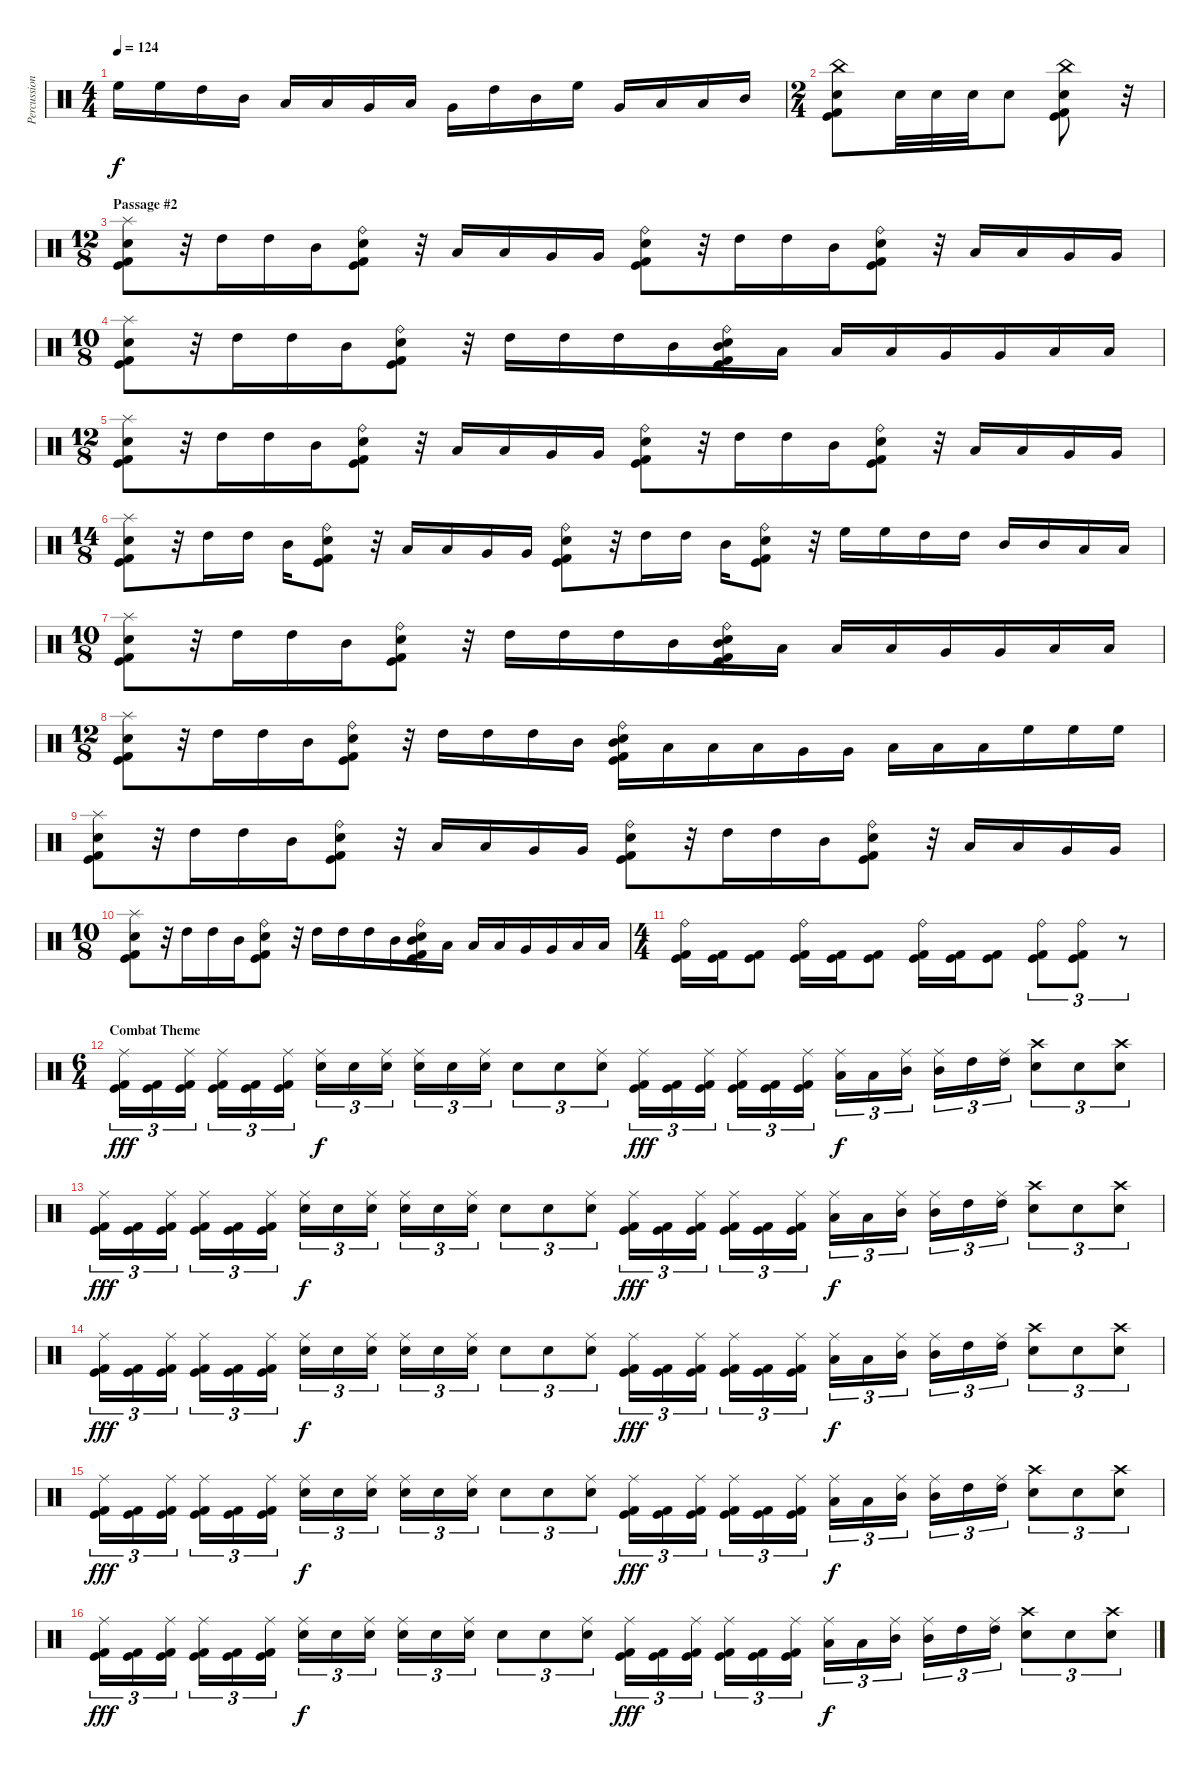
\track ("Percussion" "Percussion") {instrument percussion}
\staff {score}
\articulation defaults
\ts (4 4)
\tempo 124
\clef neutral
\ks c "High Floor Tom (hit)".16{dy f} "High Floor Tom (hit)".16 "High Tom (hit)".16 "Mid Tom (hit)".16 "Low Tom (hit)".16 "Low Tom (hit)".16 "Very Low Tom (hit)".16 "Low Floor Tom (hit)".16 "Very Low Tom (hit)".16 "High Tom (hit)".16 "Mid Tom (hit)".16 "High Floor Tom (hit)".16 "Very Low Tom (hit)".16 "Low Floor Tom (hit)".16 "Low Tom (hit)".16 "Mid Tom (hit)".16
|
\ts (2 4)
("China (hit)" "Snare (hit) 2" "Kick (hit) 2" "Kick (hit)").8 "Snare (hit) 2".32 "Snare (hit) 2".32 "Snare (hit) 2".32 "Snare (hit) 2".8 ("China (hit)" "Snare (hit) 2" "Kick (hit) 2" "Kick (hit)").8 r.32 |
\ts (12 8)
\section ("" "Passage #2")
("Splash (hit)" "Snare (hit) 2" "Kick (hit) 2" "Kick (hit)").8 r.32 "High Tom (hit)".16 "High Tom (hit)".16 "Mid Tom (hit)".16 ("Ride (bell)" "Snare (hit) 2" "Kick (hit) 2" "Kick (hit)").8 r.32 "Low Tom (hit)".16 "Low Tom (hit)".16 "Very Low Tom (hit)".16 "Very Low Tom (hit)".16 ("Ride (bell)" "Snare (hit) 2" "Kick (hit) 2" "Kick (hit)").8 r.32 "High Tom (hit)".16 "High Tom (hit)".16 "Mid Tom (hit)".16 ("Ride (bell)" "Snare (hit) 2" "Kick (hit) 2" "Kick (hit)").8 r.32 "Low Tom (hit)".16 "Low Tom (hit)".16 "Very Low Tom (hit)".16 "Very Low Tom (hit)".16 |
\ts (10 8)
("Splash (hit)" "Snare (hit) 2" "Kick (hit) 2" "Kick (hit)").8 r.32 "High Tom (hit)".16 "High Tom (hit)".16 "Mid Tom (hit)".16 ("Ride (bell)" "Snare (hit) 2" "Kick (hit) 2" "Kick (hit)").8 r.32 "High Tom (hit)".16 "High Tom (hit)".16 "High Tom (hit)".16 "Mid Tom (hit)".16 ("Ride (bell)" "Snare (hit) 2" "Mid Tom (hit)" "Kick (hit) 2" "Kick (hit)").16 "Low Tom (hit)".16 "Low Tom (hit)".16 "Low Tom (hit)".16 "Very Low Tom (hit)".16 "Very Low Tom (hit)".16 "Low Floor Tom (hit)".16 "Low Floor Tom (hit)".16 |
\ts (12 8)
("Splash (hit)" "Snare (hit) 2" "Kick (hit) 2" "Kick (hit)").8 r.32 "High Tom (hit)".16 "High Tom (hit)".16 "Mid Tom (hit)".16 ("Ride (bell)" "Snare (hit) 2" "Kick (hit) 2" "Kick (hit)").8 r.32 "Low Tom (hit)".16 "Low Tom (hit)".16 "Very Low Tom (hit)".16 "Very Low Tom (hit)".16 ("Ride (bell)" "Snare (hit) 2" "Kick (hit) 2" "Kick (hit)").8 r.32 "High Tom (hit)".16 "High Tom (hit)".16 "Mid Tom (hit)".16 ("Ride (bell)" "Snare (hit) 2" "Kick (hit) 2" "Kick (hit)").8 r.32 "Low Tom (hit)".16 "Low Tom (hit)".16 "Very Low Tom (hit)".16 "Very Low Tom (hit)".16 |
\ts (14 8)
("Splash (hit)" "Snare (hit) 2" "Kick (hit) 2" "Kick (hit)").8 r.32 "High Tom (hit)".16 "High Tom (hit)".16 "Mid Tom (hit)".16 ("Ride (bell)" "Snare (hit) 2" "Kick (hit) 2" "Kick (hit)").8 r.32 "Low Tom (hit)".16 "Low Tom (hit)".16 "Very Low Tom (hit)".16 "Very Low Tom (hit)".16 ("Ride (bell)" "Snare (hit) 2" "Kick (hit) 2" "Kick (hit)").8 r.32 "High Tom (hit)".16 "High Tom (hit)".16 "Mid Tom (hit)".16 ("Ride (bell)" "Snare (hit) 2" "Kick (hit) 2" "Kick (hit)").8 r.32 "High Floor Tom (hit)".16 "High Floor Tom (hit)".16 "High Tom (hit)".16 "High Tom (hit)".16 "Mid Tom (hit)".16 "Mid Tom (hit)".16 "Low Tom (hit)".16 "Low Tom (hit)".16 |
\ts (10 8)
("Splash (hit)" "Snare (hit) 2" "Kick (hit) 2" "Kick (hit)").8 r.32 "High Tom (hit)".16 "High Tom (hit)".16 "Mid Tom (hit)".16 ("Ride (bell)" "Snare (hit) 2" "Kick (hit) 2" "Kick (hit)").8 r.32 "High Tom (hit)".16 "High Tom (hit)".16 "High Tom (hit)".16 "Mid Tom (hit)".16 ("Ride (bell)" "Snare (hit) 2" "Mid Tom (hit)" "Kick (hit) 2" "Kick (hit)").16 "Low Tom (hit)".16 "Low Tom (hit)".16 "Low Tom (hit)".16 "Very Low Tom (hit)".16 "Very Low Tom (hit)".16 "Low Floor Tom (hit)".16 "Low Floor Tom (hit)".16 |
\ts (12 8)
("Splash (hit)" "Snare (hit) 2" "Kick (hit) 2" "Kick (hit)").8 r.32 "High Tom (hit)".16 "High Tom (hit)".16 "Mid Tom (hit)".16 ("Ride (bell)" "Snare (hit) 2" "Kick (hit) 2" "Kick (hit)").8 r.32 "High Tom (hit)".16 "High Tom (hit)".16 "High Tom (hit)".16 "Mid Tom (hit)".16 ("Ride (bell)" "Snare (hit) 2" "Mid Tom (hit)" "Kick (hit) 2" "Kick (hit)").16 "Low Tom (hit)".16 "Low Tom (hit)".16 "Low Tom (hit)".16 "Very Low Tom (hit)".16 "Very Low Tom (hit)".16 "Low Floor Tom (hit)".16 "Low Floor Tom (hit)".16 "Low Floor Tom (hit)".16 "High Floor Tom (hit)".16 "High Floor Tom (hit)".16 "High Floor Tom (hit)".16 |
("Splash (hit)" "Snare (hit) 2" "Kick (hit) 2" "Kick (hit)").8 r.32 "High Tom (hit)".16 "High Tom (hit)".16 "Mid Tom (hit)".16 ("Ride (bell)" "Snare (hit) 2" "Kick (hit) 2" "Kick (hit)").8 r.32 "Low Tom (hit)".16 "Low Tom (hit)".16 "Very Low Tom (hit)".16 "Very Low Tom (hit)".16 ("Ride (bell)" "Snare (hit) 2" "Kick (hit) 2" "Kick (hit)").8 r.32 "High Tom (hit)".16 "High Tom (hit)".16 "Mid Tom (hit)".16 ("Ride (bell)" "Snare (hit) 2" "Kick (hit) 2" "Kick (hit)").8 r.32 "Low Tom (hit)".16 "Low Tom (hit)".16 "Very Low Tom (hit)".16 "Very Low Tom (hit)".16 |
\ts (10 8)
("Splash (hit)" "Snare (hit) 2" "Kick (hit) 2" "Kick (hit)").8 r.32 "High Tom (hit)".16 "High Tom (hit)".16 "Mid Tom (hit)".16 ("Ride (bell)" "Snare (hit) 2" "Kick (hit) 2" "Kick (hit)").8 r.32 "High Tom (hit)".16 "High Tom (hit)".16 "High Tom (hit)".16 "Mid Tom (hit)".16 ("Ride (bell)" "Snare (hit) 2" "Mid Tom (hit)" "Kick (hit) 2" "Kick (hit)").16 "Low Tom (hit)".16 "Low Tom (hit)".16 "Low Tom (hit)".16 "Very Low Tom (hit)".16 "Very Low Tom (hit)".16 "Low Floor Tom (hit)".16 "Low Floor Tom (hit)".16 |
\ts (4 4)
("Ride (bell)" "Kick (hit) 2" "Kick (hit)").16 ("Kick (hit) 2" "Kick (hit)").16 ("Kick (hit) 2" "Kick (hit)").8 ("Ride (bell)" "Kick (hit) 2" "Kick (hit)").16 ("Kick (hit) 2" "Kick (hit)").16 ("Kick (hit) 2" "Kick (hit)").8 ("Ride (bell)" "Kick (hit) 2" "Kick (hit)").16 ("Kick (hit) 2" "Kick (hit)").16 ("Kick (hit) 2" "Kick (hit)").8 ("Ride (bell)" "Kick (hit) 2" "Kick (hit)").8{tu (3 2)} ("Ride (bell)" "Kick (hit) 2" "Kick (hit)").8{tu (3 2)} r.8{tu (3 2)} |
\ts (6 4)
\section ("" "Combat Theme")
("Ride (middle)" "Kick (hit) 2" "Kick (hit)").16{tu (3 2) dy fff} ("Kick (hit) 2" "Kick (hit)").16{tu (3 2)} ("Ride (middle)" "Kick (hit) 2" "Kick (hit)").16{tu (3 2)} ("Ride (middle)" "Kick (hit) 2" "Kick (hit)").16{tu (3 2)} ("Kick (hit) 2" "Kick (hit)").16{tu (3 2)} ("Ride (middle)" "Kick (hit) 2" "Kick (hit)").16{tu (3 2)} ("Ride (middle)" "Snare (hit) 2").16{tu (3 2) dy f} "Snare (hit) 2".16{tu (3 2)} ("Ride (middle)" "Snare (hit) 2").16{tu (3 2)} ("Ride (middle)" "Snare (hit) 2").16{tu (3 2)} "Snare (hit) 2".16{tu (3 2)} ("Ride (middle)" "Snare (hit) 2").16{tu (3 2)} "Snare (hit) 2".8{tu (3 2)} "Snare (hit) 2".8{tu (3 2)} ("Ride (middle)" "Snare (hit) 2").8{tu (3 2)} ("Ride (middle)" "Kick (hit) 2" "Kick (hit)").16{tu (3 2) dy fff} ("Kick (hit) 2" "Kick (hit)").16{tu (3 2)} ("Ride (middle)" "Kick (hit) 2" "Kick (hit)").16{tu (3 2)} ("Ride (middle)" "Kick (hit) 2" "Kick (hit)").16{tu (3 2)} ("Kick (hit) 2" "Kick (hit)").16{tu (3 2)} ("Ride (middle)" "Kick (hit) 2" "Kick (hit)").16{tu (3 2)} ("Ride (middle)" "Low Tom (hit)").16{tu (3 2) dy f} "Low Tom (hit)".16{tu (3 2)} ("Ride (middle)" "Mid Tom (hit)").16{tu (3 2)} ("Ride (middle)" "Mid Tom (hit)").16{tu (3 2)} "High Tom (hit)".16{tu (3 2)} ("Ride (middle)" "High Tom (hit)").16{tu (3 2)} ("Crash high (hit)" "Snare (hit) 2").8{tu (3 2)} "Snare (hit) 2".8{tu (3 2)} ("Crash high (hit)" "Snare (hit) 2").8{tu (3 2)} |
("Ride (middle)" "Kick (hit) 2" "Kick (hit)").16{tu (3 2) dy fff} ("Kick (hit) 2" "Kick (hit)").16{tu (3 2)} ("Ride (middle)" "Kick (hit) 2" "Kick (hit)").16{tu (3 2)} ("Ride (middle)" "Kick (hit) 2" "Kick (hit)").16{tu (3 2)} ("Kick (hit) 2" "Kick (hit)").16{tu (3 2)} ("Ride (middle)" "Kick (hit) 2" "Kick (hit)").16{tu (3 2)} ("Ride (middle)" "Snare (hit) 2").16{tu (3 2) dy f} "Snare (hit) 2".16{tu (3 2)} ("Ride (middle)" "Snare (hit) 2").16{tu (3 2)} ("Ride (middle)" "Snare (hit) 2").16{tu (3 2)} "Snare (hit) 2".16{tu (3 2)} ("Ride (middle)" "Snare (hit) 2").16{tu (3 2)} "Snare (hit) 2".8{tu (3 2)} "Snare (hit) 2".8{tu (3 2)} ("Ride (middle)" "Snare (hit) 2").8{tu (3 2)} ("Ride (middle)" "Kick (hit) 2" "Kick (hit)").16{tu (3 2) dy fff} ("Kick (hit) 2" "Kick (hit)").16{tu (3 2)} ("Ride (middle)" "Kick (hit) 2" "Kick (hit)").16{tu (3 2)} ("Ride (middle)" "Kick (hit) 2" "Kick (hit)").16{tu (3 2)} ("Kick (hit) 2" "Kick (hit)").16{tu (3 2)} ("Ride (middle)" "Kick (hit) 2" "Kick (hit)").16{tu (3 2)} ("Ride (middle)" "Low Tom (hit)").16{tu (3 2) dy f} "Low Tom (hit)".16{tu (3 2)} ("Ride (middle)" "Mid Tom (hit)").16{tu (3 2)} ("Ride (middle)" "Mid Tom (hit)").16{tu (3 2)} "High Tom (hit)".16{tu (3 2)} ("Ride (middle)" "High Tom (hit)").16{tu (3 2)} ("Crash high (hit)" "Snare (hit) 2").8{tu (3 2)} "Snare (hit) 2".8{tu (3 2)} ("Crash high (hit)" "Snare (hit) 2").8{tu (3 2)} |
("Ride (middle)" "Kick (hit) 2" "Kick (hit)").16{tu (3 2) dy fff} ("Kick (hit) 2" "Kick (hit)").16{tu (3 2)} ("Ride (middle)" "Kick (hit) 2" "Kick (hit)").16{tu (3 2)} ("Ride (middle)" "Kick (hit) 2" "Kick (hit)").16{tu (3 2)} ("Kick (hit) 2" "Kick (hit)").16{tu (3 2)} ("Ride (middle)" "Kick (hit) 2" "Kick (hit)").16{tu (3 2)} ("Ride (middle)" "Snare (hit) 2").16{tu (3 2) dy f} "Snare (hit) 2".16{tu (3 2)} ("Ride (middle)" "Snare (hit) 2").16{tu (3 2)} ("Ride (middle)" "Snare (hit) 2").16{tu (3 2)} "Snare (hit) 2".16{tu (3 2)} ("Ride (middle)" "Snare (hit) 2").16{tu (3 2)} "Snare (hit) 2".8{tu (3 2)} "Snare (hit) 2".8{tu (3 2)} ("Ride (middle)" "Snare (hit) 2").8{tu (3 2)} ("Ride (middle)" "Kick (hit) 2" "Kick (hit)").16{tu (3 2) dy fff} ("Kick (hit) 2" "Kick (hit)").16{tu (3 2)} ("Ride (middle)" "Kick (hit) 2" "Kick (hit)").16{tu (3 2)} ("Ride (middle)" "Kick (hit) 2" "Kick (hit)").16{tu (3 2)} ("Kick (hit) 2" "Kick (hit)").16{tu (3 2)} ("Ride (middle)" "Kick (hit) 2" "Kick (hit)").16{tu (3 2)} ("Ride (middle)" "Low Tom (hit)").16{tu (3 2) dy f} "Low Tom (hit)".16{tu (3 2)} ("Ride (middle)" "Mid Tom (hit)").16{tu (3 2)} ("Ride (middle)" "Mid Tom (hit)").16{tu (3 2)} "High Tom (hit)".16{tu (3 2)} ("Ride (middle)" "High Tom (hit)").16{tu (3 2)} ("Crash high (hit)" "Snare (hit) 2").8{tu (3 2)} "Snare (hit) 2".8{tu (3 2)} ("Crash high (hit)" "Snare (hit) 2").8{tu (3 2)} |
("Ride (middle)" "Kick (hit) 2" "Kick (hit)").16{tu (3 2) dy fff} ("Kick (hit) 2" "Kick (hit)").16{tu (3 2)} ("Ride (middle)" "Kick (hit) 2" "Kick (hit)").16{tu (3 2)} ("Ride (middle)" "Kick (hit) 2" "Kick (hit)").16{tu (3 2)} ("Kick (hit) 2" "Kick (hit)").16{tu (3 2)} ("Ride (middle)" "Kick (hit) 2" "Kick (hit)").16{tu (3 2)} ("Ride (middle)" "Snare (hit) 2").16{tu (3 2) dy f} "Snare (hit) 2".16{tu (3 2)} ("Ride (middle)" "Snare (hit) 2").16{tu (3 2)} ("Ride (middle)" "Snare (hit) 2").16{tu (3 2)} "Snare (hit) 2".16{tu (3 2)} ("Ride (middle)" "Snare (hit) 2").16{tu (3 2)} "Snare (hit) 2".8{tu (3 2)} "Snare (hit) 2".8{tu (3 2)} ("Ride (middle)" "Snare (hit) 2").8{tu (3 2)} ("Ride (middle)" "Kick (hit) 2" "Kick (hit)").16{tu (3 2) dy fff} ("Kick (hit) 2" "Kick (hit)").16{tu (3 2)} ("Ride (middle)" "Kick (hit) 2" "Kick (hit)").16{tu (3 2)} ("Ride (middle)" "Kick (hit) 2" "Kick (hit)").16{tu (3 2)} ("Kick (hit) 2" "Kick (hit)").16{tu (3 2)} ("Ride (middle)" "Kick (hit) 2" "Kick (hit)").16{tu (3 2)} ("Ride (middle)" "Low Tom (hit)").16{tu (3 2) dy f} "Low Tom (hit)".16{tu (3 2)} ("Ride (middle)" "Mid Tom (hit)").16{tu (3 2)} ("Ride (middle)" "Mid Tom (hit)").16{tu (3 2)} "High Tom (hit)".16{tu (3 2)} ("Ride (middle)" "High Tom (hit)").16{tu (3 2)} ("Crash high (hit)" "Snare (hit) 2").8{tu (3 2)} "Snare (hit) 2".8{tu (3 2)} ("Crash high (hit)" "Snare (hit) 2").8{tu (3 2)} |
("Ride (middle)" "Kick (hit) 2" "Kick (hit)").16{tu (3 2) dy fff} ("Kick (hit) 2" "Kick (hit)").16{tu (3 2)} ("Ride (middle)" "Kick (hit) 2" "Kick (hit)").16{tu (3 2)} ("Ride (middle)" "Kick (hit) 2" "Kick (hit)").16{tu (3 2)} ("Kick (hit) 2" "Kick (hit)").16{tu (3 2)} ("Ride (middle)" "Kick (hit) 2" "Kick (hit)").16{tu (3 2)} ("Ride (middle)" "Snare (hit) 2").16{tu (3 2) dy f} "Snare (hit) 2".16{tu (3 2)} ("Ride (middle)" "Snare (hit) 2").16{tu (3 2)} ("Ride (middle)" "Snare (hit) 2").16{tu (3 2)} "Snare (hit) 2".16{tu (3 2)} ("Ride (middle)" "Snare (hit) 2").16{tu (3 2)} "Snare (hit) 2".8{tu (3 2)} "Snare (hit) 2".8{tu (3 2)} ("Ride (middle)" "Snare (hit) 2").8{tu (3 2)} ("Ride (middle)" "Kick (hit) 2" "Kick (hit)").16{tu (3 2) dy fff} ("Kick (hit) 2" "Kick (hit)").16{tu (3 2)} ("Ride (middle)" "Kick (hit) 2" "Kick (hit)").16{tu (3 2)} ("Ride (middle)" "Kick (hit) 2" "Kick (hit)").16{tu (3 2)} ("Kick (hit) 2" "Kick (hit)").16{tu (3 2)} ("Ride (middle)" "Kick (hit) 2" "Kick (hit)").16{tu (3 2)} ("Ride (middle)" "Low Tom (hit)").16{tu (3 2) dy f} "Low Tom (hit)".16{tu (3 2)} ("Ride (middle)" "Mid Tom (hit)").16{tu (3 2)} ("Ride (middle)" "Mid Tom (hit)").16{tu (3 2)} "High Tom (hit)".16{tu (3 2)} ("Ride (middle)" "High Tom (hit)").16{tu (3 2)} ("Crash high (hit)" "Snare (hit) 2").8{tu (3 2)} "Snare (hit) 2".8{tu (3 2)} ("Crash high (hit)" "Snare (hit) 2").8{tu (3 2)}
